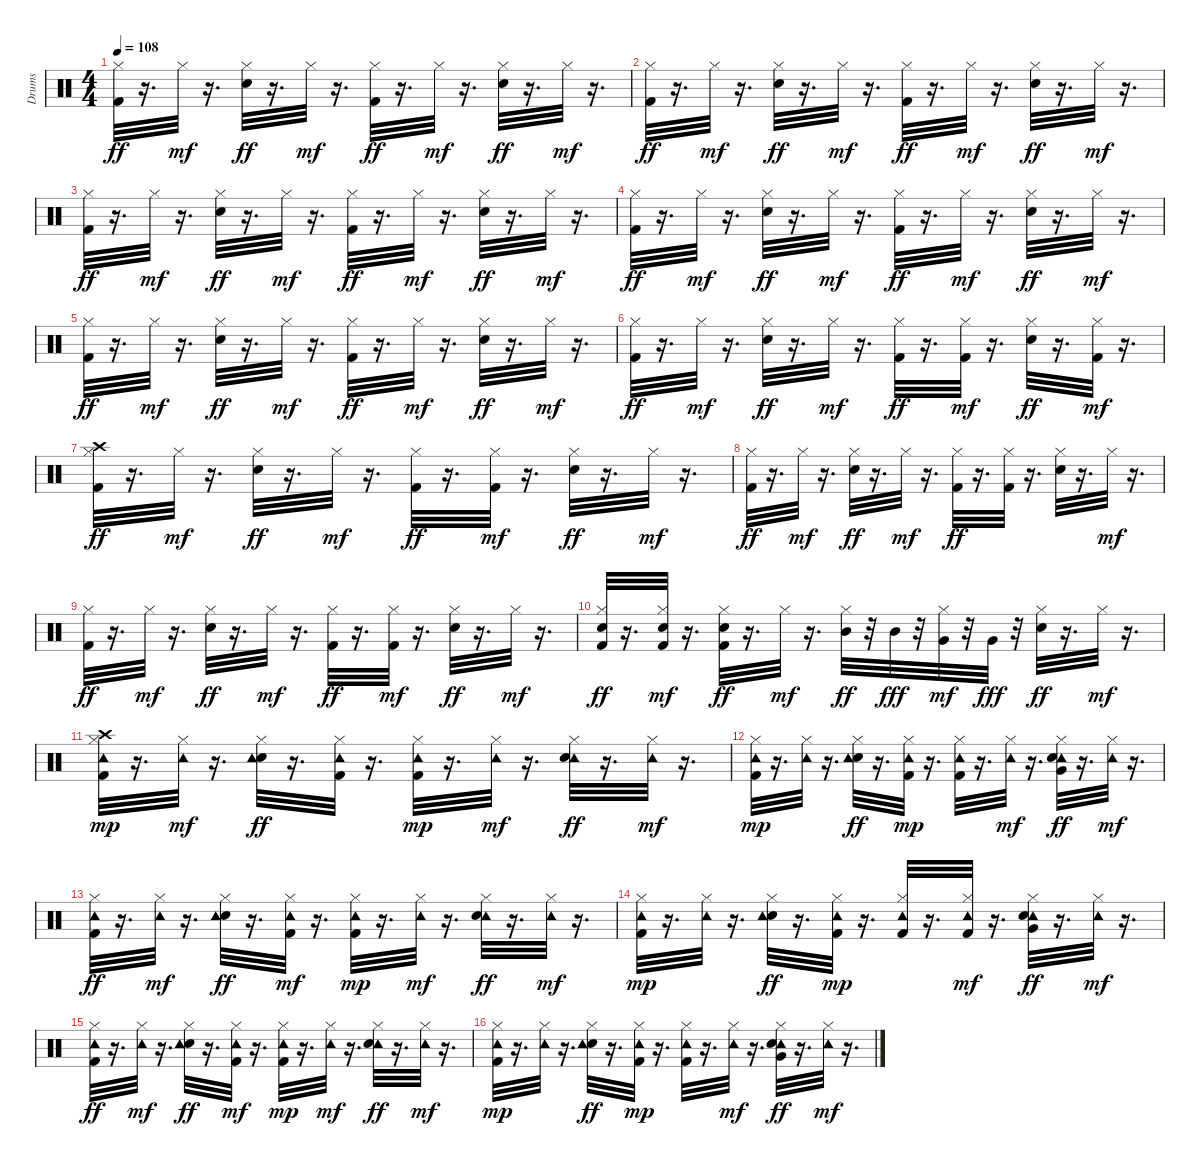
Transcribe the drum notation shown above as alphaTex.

\track ("Drums               " "Drums     ") {instrument percussion}
\staff {score}
\articulation defaults
\ts (4 4)
\tempo 108
\clef neutral
\ks c
("Kick (hit) 2" "Hi-Hat (closed)").32{dy ff} r.16{d} "Hi-Hat (closed)".32{dy mf} r.16{d} ("Snare (hit) 2" "Hi-Hat (closed)").32{dy ff} r.16{d} "Hi-Hat (closed)".32{dy mf} r.16{d} ("Kick (hit) 2" "Hi-Hat (closed)").32{dy ff} r.16{d} "Hi-Hat (closed)".32{dy mf} r.16{d} ("Hi-Hat (closed)" "Snare (hit) 2").32{dy ff} r.16{d} "Hi-Hat (closed)".32{dy mf} r.16{d} |
("Kick (hit) 2" "Hi-Hat (closed)").32{dy ff} r.16{d} "Hi-Hat (closed)".32{dy mf} r.16{d} ("Snare (hit) 2" "Hi-Hat (closed)").32{dy ff} r.16{d} "Hi-Hat (closed)".32{dy mf} r.16{d} ("Kick (hit) 2" "Hi-Hat (closed)").32{dy ff} r.16{d} "Hi-Hat (closed)".32{dy mf} r.16{d} ("Snare (hit) 2" "Hi-Hat (closed)").32{dy ff} r.16{d} "Hi-Hat (closed)".32{dy mf} r.16{d} |
("Kick (hit) 2" "Hi-Hat (closed)").32{dy ff} r.16{d} "Hi-Hat (closed)".32{dy mf} r.16{d} ("Snare (hit) 2" "Hi-Hat (closed)").32{dy ff} r.16{d} "Hi-Hat (closed)".32{dy mf} r.16{d} ("Kick (hit) 2" "Hi-Hat (closed)").32{dy ff} r.16{d} "Hi-Hat (closed)".32{dy mf} r.16{d} ("Snare (hit) 2" "Hi-Hat (closed)").32{dy ff} r.16{d} "Hi-Hat (closed)".32{dy mf} r.16{d} |
("Kick (hit) 2" "Hi-Hat (closed)").32{dy ff} r.16{d} "Hi-Hat (closed)".32{dy mf} r.16{d} ("Snare (hit) 2" "Hi-Hat (closed)").32{dy ff} r.16{d} "Hi-Hat (closed)".32{dy mf} r.16{d} ("Hi-Hat (closed)" "Kick (hit) 2").32{dy ff} r.16{d} "Hi-Hat (closed)".32{dy mf} r.16{d} ("Snare (hit) 2" "Hi-Hat (closed)").32{dy ff} r.16{d} "Hi-Hat (closed)".32{dy mf} r.16{d} |
("Kick (hit) 2" "Hi-Hat (closed)").32{dy ff} r.16{d} "Hi-Hat (closed)".32{dy mf} r.16{d} ("Snare (hit) 2" "Hi-Hat (closed)").32{dy ff} r.16{d} "Hi-Hat (closed)".32{dy mf} r.16{d} ("Kick (hit) 2" "Hi-Hat (closed)").32{dy ff} r.16{d} "Hi-Hat (closed)".32{dy mf} r.16{d} ("Snare (hit) 2" "Hi-Hat (closed)").32{dy ff} r.16{d} "Hi-Hat (closed)".32{dy mf} r.16{d} |
("Kick (hit) 2" "Hi-Hat (closed)").32{dy ff} r.16{d} "Hi-Hat (closed)".32{dy mf} r.16{d} ("Snare (hit) 2" "Hi-Hat (closed)").32{dy ff} r.16{d} "Hi-Hat (closed)".32{dy mf} r.16{d} ("Kick (hit) 2" "Hi-Hat (closed)").32{dy ff} r.16{d} ("Kick (hit) 2" "Hi-Hat (closed)").32{dy mf} r.16{d} ("Snare (hit) 2" "Hi-Hat (closed)").32{dy ff} r.16{d} ("Kick (hit) 2" "Hi-Hat (closed)").32{dy mf} r.16{d} |
("Kick (hit) 2" "Crash high (hit)" "Hi-Hat (closed)").32{dy ff} r.16{d} "Hi-Hat (closed)".32{dy mf} r.16{d} ("Hi-Hat (closed)" "Snare (hit) 2").32{dy ff} r.16{d} "Hi-Hat (closed)".32{dy mf} r.16{d} ("Kick (hit) 2" "Hi-Hat (closed)").32{dy ff} r.16{d} ("Kick (hit) 2" "Hi-Hat (closed)").32{dy mf} r.16{d} ("Snare (hit) 2" "Hi-Hat (closed)").32{dy ff} r.16{d} "Hi-Hat (closed)".32{dy mf} r.16{d} |
("Kick (hit) 2" "Hi-Hat (closed)").32{dy ff} r.16{d} "Hi-Hat (closed)".32{dy mf} r.16{d} ("Snare (hit) 2" "Hi-Hat (closed)").32{dy ff} r.16{d} "Hi-Hat (closed)".32{dy mf} r.16{d} ("Kick (hit) 2" "Hi-Hat (closed)").32{dy ff} r.16{d} ("Hi-Hat (closed)" "Kick (hit) 2").32 r.16{d} ("Snare (hit) 2" "Hi-Hat (closed)").32 r.16{d} "Hi-Hat (closed)".32{dy mf} r.16{d} |
("Kick (hit) 2" "Hi-Hat (closed)").32{dy ff} r.16{d} "Hi-Hat (closed)".32{dy mf} r.16{d} ("Snare (hit) 2" "Hi-Hat (closed)").32{dy ff} r.16{d} "Hi-Hat (closed)".32{dy mf} r.16{d} ("Kick (hit) 2" "Hi-Hat (closed)").32{dy ff} r.16{d} ("Kick (hit) 2" "Hi-Hat (closed)").32{dy mf} r.16{d} ("Snare (hit) 2" "Hi-Hat (closed)").32{dy ff} r.16{d} "Hi-Hat (closed)".32{dy mf} r.16{d} |
("Hi-Hat (closed)" "Kick (hit) 2" "Snare (hit) 2").32{dy ff} r.16{d} ("Kick (hit) 2" "Snare (hit) 2" "Hi-Hat (closed)").32{dy mf} r.16{d} ("Kick (hit) 2" "Snare (hit) 2" "Hi-Hat (closed)").32{dy ff} r.16{d} "Hi-Hat (closed)".32{dy mf} r.16{d} ("Mid Tom (hit)" "Hi-Hat (closed)").32{dy ff} r.32 "Mid Tom (hit)".32{dy fff} r.32 ("Very Low Tom (hit)" "Hi-Hat (closed)").32{dy mf} r.32 "Very Low Tom (hit)".32{dy fff} r.32 ("Snare (hit) 2" "Hi-Hat (closed)").32{dy ff} r.16{d} "Hi-Hat (closed)".32{dy mf} r.16{d} |
("Kick (hit) 2" "Hi-Hat (closed)" "Crash high (hit)" "Tambourine (hit)").32{dy mp} r.16{d} ("Tambourine (hit)" "Hi-Hat (closed)").32{dy mf} r.16{d} ("Snare (hit) 2" "Hi-Hat (closed)" "Tambourine (hit)").32{dy ff} r.16{d} ("Hi-Hat (closed)" "Tambourine (hit)" "Kick (hit) 2").32 r.16{d} ("Kick (hit) 2" "Hi-Hat (closed)" "Tambourine (hit)").32{dy mp} r.16{d} ("Tambourine (hit)" "Hi-Hat (closed)").32{dy mf} r.16{d} ("Tambourine (hit)" "Snare (hit) 2" "Hi-Hat (closed)").32{dy ff} r.16{d} ("Tambourine (hit)" "Hi-Hat (closed)").32{dy mf} r.16{d} |
("Kick (hit) 2" "Hi-Hat (closed)" "Tambourine (hit)").32{dy mp} r.16{d} ("Hi-Hat (closed)" "Tambourine (hit)").32 r.16{d} ("Snare (hit) 2" "Hi-Hat (closed)" "Tambourine (hit)").32{dy ff} r.16{d} ("Kick (hit) 2" "Hi-Hat (closed)" "Tambourine (hit)").32{dy mp} r.16{d} ("Kick (hit) 2" "Hi-Hat (closed)" "Tambourine (hit)").32 r.16{d} ("Tambourine (hit)" "Hi-Hat (closed)").32{dy mf} r.16{d} ("Tambourine (hit)" "Hi-Hat (closed)" "Snare (hit) 2" "Very Low Tom (hit)").32{dy ff} r.16{d} ("Tambourine (hit)" "Hi-Hat (closed)").32{dy mf} r.16{d} |
("Kick (hit) 2" "Tambourine (hit)" "Hi-Hat (closed)").32{dy ff} r.16{d} ("Tambourine (hit)" "Hi-Hat (closed)").32{dy mf} r.16{d} ("Snare (hit) 2" "Hi-Hat (closed)" "Tambourine (hit)").32{dy ff} r.16{d} ("Tambourine (hit)" "Kick (hit) 2" "Hi-Hat (closed)").32{dy mf} r.16{d} ("Kick (hit) 2" "Hi-Hat (closed)" "Tambourine (hit)").32{dy mp} r.16{d} ("Tambourine (hit)" "Hi-Hat (closed)").32{dy mf} r.16{d} ("Tambourine (hit)" "Snare (hit) 2" "Hi-Hat (closed)").32{dy ff} r.16{d} ("Tambourine (hit)" "Hi-Hat (closed)").32{dy mf} r.16{d} |
("Kick (hit) 2" "Hi-Hat (closed)" "Tambourine (hit)").32{dy mp} r.16{d} ("Hi-Hat (closed)" "Tambourine (hit)").32 r.16{d} ("Snare (hit) 2" "Hi-Hat (closed)" "Tambourine (hit)").32{dy ff} r.16{d} ("Kick (hit) 2" "Hi-Hat (closed)" "Tambourine (hit)").32{dy mp} r.16{d} ("Kick (hit) 2" "Hi-Hat (closed)" "Tambourine (hit)").32 r.16{d} ("Tambourine (hit)" "Kick (hit) 2" "Hi-Hat (closed)").32{dy mf} r.16{d} ("Tambourine (hit)" "Snare (hit) 2" "Very Low Tom (hit)" "Hi-Hat (closed)").32{dy ff} r.16{d} ("Tambourine (hit)" "Hi-Hat (closed)").32{dy mf} r.16{d} |
("Kick (hit) 2" "Tambourine (hit)" "Hi-Hat (closed)").32{dy ff} r.16{d} ("Tambourine (hit)" "Hi-Hat (closed)").32{dy mf} r.16{d} ("Snare (hit) 2" "Hi-Hat (closed)" "Tambourine (hit)").32{dy ff} r.16{d} ("Tambourine (hit)" "Kick (hit) 2" "Hi-Hat (closed)").32{dy mf} r.16{d} ("Hi-Hat (closed)" "Kick (hit) 2" "Tambourine (hit)").32{dy mp} r.16{d} ("Tambourine (hit)" "Hi-Hat (closed)").32{dy mf} r.16{d} ("Tambourine (hit)" "Snare (hit) 2" "Hi-Hat (closed)").32{dy ff} r.16{d} ("Tambourine (hit)" "Hi-Hat (closed)").32{dy mf} r.16{d} |
("Kick (hit) 2" "Hi-Hat (closed)" "Tambourine (hit)").32{dy mp} r.16{d} ("Hi-Hat (closed)" "Tambourine (hit)").32 r.16{d} ("Snare (hit) 2" "Hi-Hat (closed)" "Tambourine (hit)").32{dy ff} r.16{d} ("Kick (hit) 2" "Hi-Hat (closed)" "Tambourine (hit)").32{dy mp} r.16{d} ("Kick (hit) 2" "Hi-Hat (closed)" "Tambourine (hit)").32 r.16{d} ("Tambourine (hit)" "Hi-Hat (closed)").32{dy mf} r.16{d} ("Tambourine (hit)" "Snare (hit) 2" "Hi-Hat (closed)" "Very Low Tom (hit)").32{dy ff} r.16{d} ("Tambourine (hit)" "Hi-Hat (closed)").32{dy mf} r.16{d}
